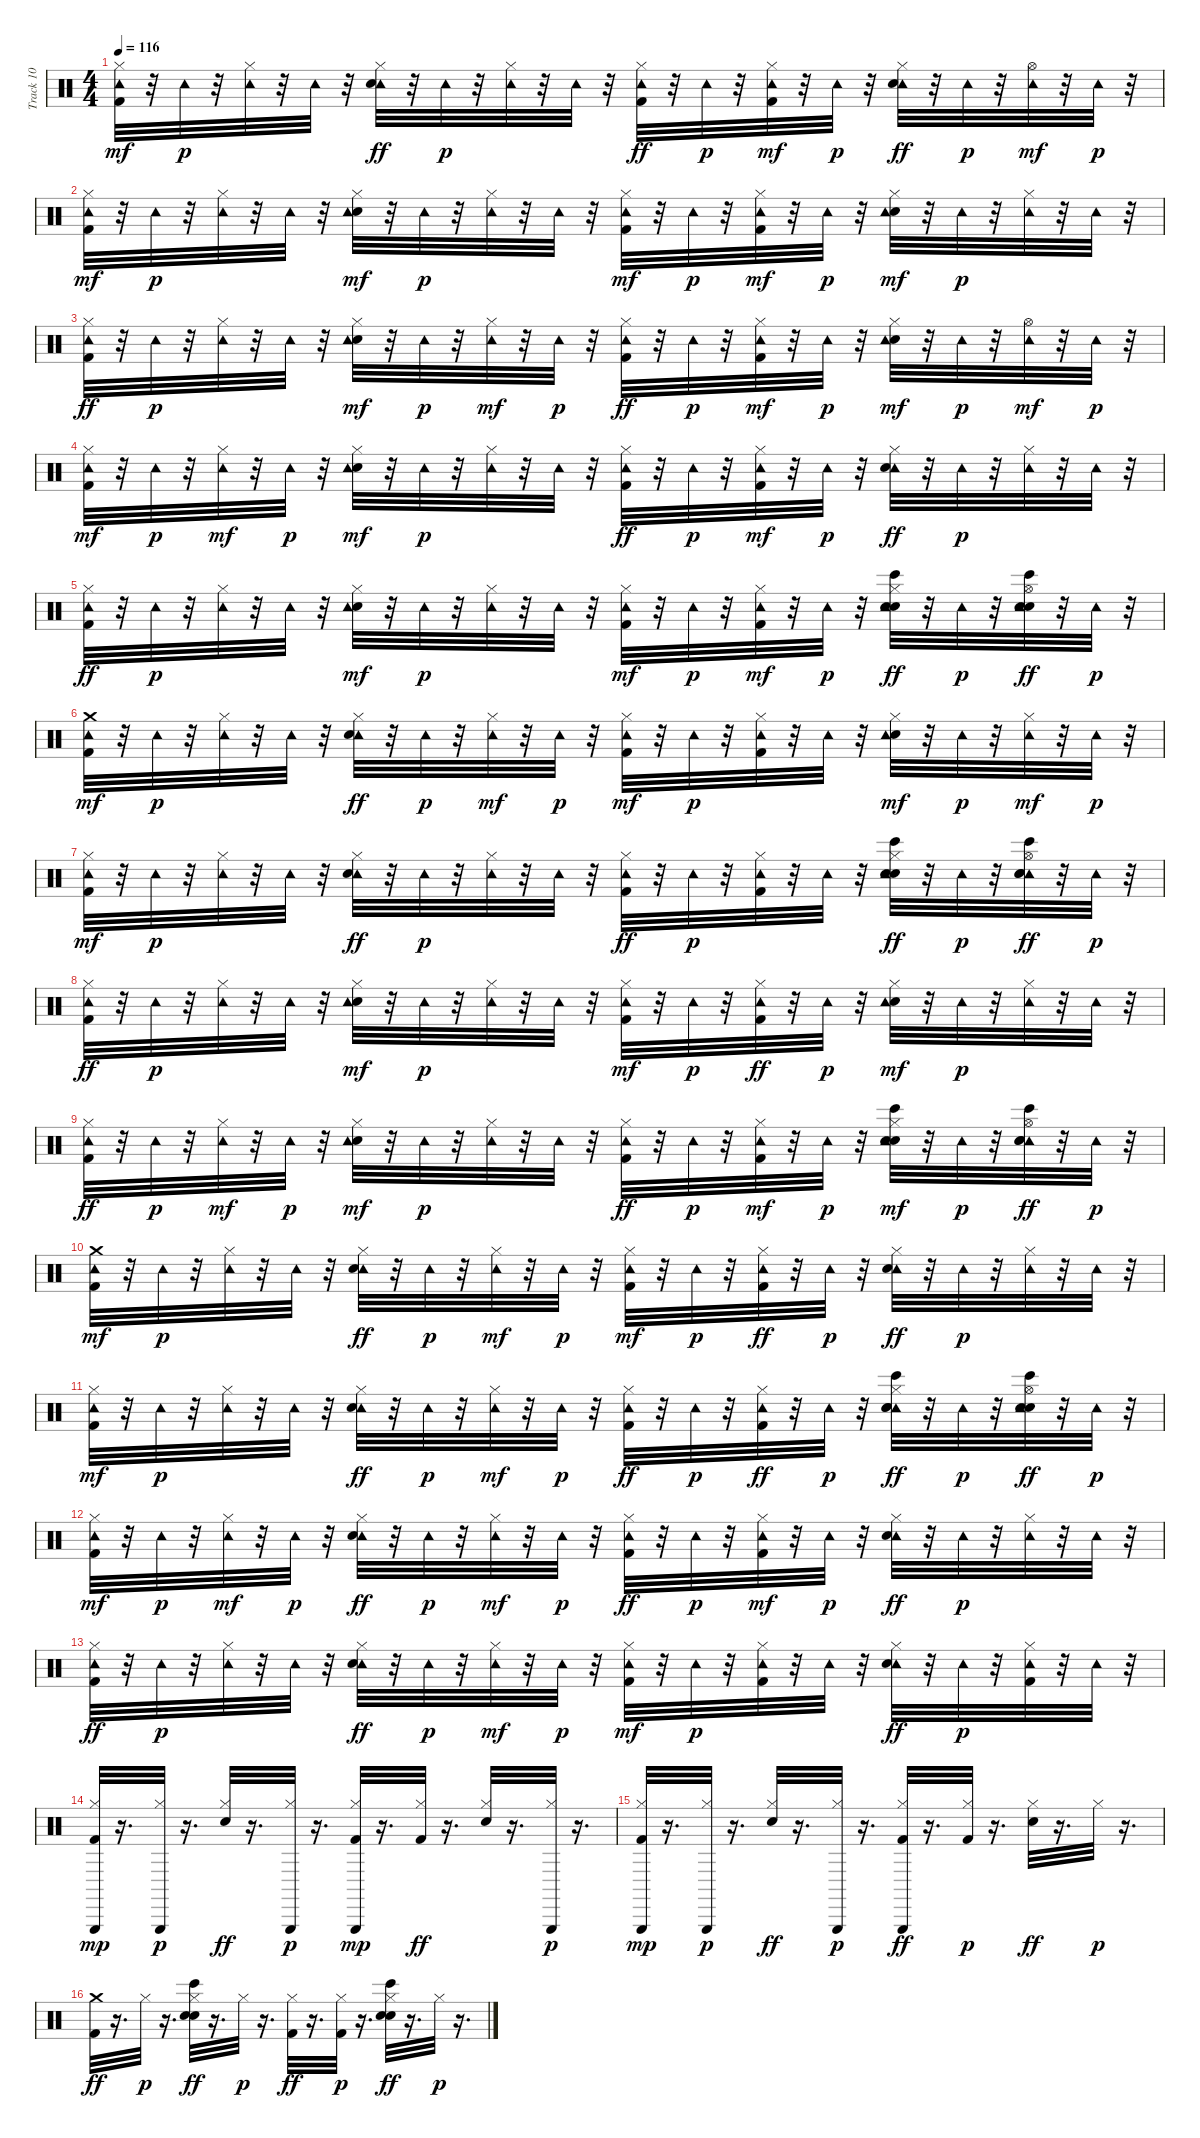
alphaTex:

\track ("Track 10" "Track 10") {instrument percussion}
\staff {score}
\articulation defaults
\ts (4 4)
\tempo 116
\clef neutral
\ks c
("Kick (hit) 2" "Tambourine (hit)" "Hi-Hat (closed)").32{dy mf} r.32 "Tambourine (hit)".32{dy p} r.32 ("Tambourine (hit)" "Hi-Hat (closed)").32 r.32 "Tambourine (hit)".32 r.32 ("Tambourine (hit)" "Snare (hit) 2" "Hi-Hat (closed)").32{dy ff} r.32 "Tambourine (hit)".32{dy p} r.32 ("Tambourine (hit)" "Hi-Hat (closed)").32 r.32 "Tambourine (hit)".32 r.32 ("Hi-Hat (closed)" "Tambourine (hit)" "Kick (hit) 2").32{dy ff} r.32 "Tambourine (hit)".32{dy p} r.32 ("Kick (hit) 2" "Hi-Hat (closed)" "Tambourine (hit)").32{dy mf} r.32 "Tambourine (hit)".32{dy p} r.32 ("Tambourine (hit)" "Snare (hit) 2" "Hi-Hat (closed)").32{dy ff} r.32 "Tambourine (hit)".32{dy p} r.32 ("Hi-Hat (open)" "Tambourine (hit)").32{dy mf} r.32 "Tambourine (hit)".32{dy p} r.32 |
("Hi-Hat (closed)" "Kick (hit) 2" "Tambourine (hit)").32{dy mf} r.32 "Tambourine (hit)".32{dy p} r.32 ("Tambourine (hit)" "Hi-Hat (closed)").32 r.32 "Tambourine (hit)".32 r.32 ("Hi-Hat (closed)" "Snare (hit) 2" "Tambourine (hit)").32{dy mf} r.32 "Tambourine (hit)".32{dy p} r.32 ("Tambourine (hit)" "Hi-Hat (closed)").32 r.32 "Tambourine (hit)".32 r.32 ("Kick (hit) 2" "Hi-Hat (closed)" "Tambourine (hit)").32{dy mf} r.32 "Tambourine (hit)".32{dy p} r.32 ("Hi-Hat (closed)" "Kick (hit) 2" "Tambourine (hit)").32{dy mf} r.32 "Tambourine (hit)".32{dy p} r.32 ("Snare (hit) 2" "Hi-Hat (closed)" "Tambourine (hit)").32{dy mf} r.32 "Tambourine (hit)".32{dy p} r.32 ("Tambourine (hit)" "Hi-Hat (closed)").32 r.32 "Tambourine (hit)".32 r.32 |
("Tambourine (hit)" "Hi-Hat (closed)" "Kick (hit) 2").32{dy ff} r.32 "Tambourine (hit)".32{dy p} r.32 ("Tambourine (hit)" "Hi-Hat (closed)").32 r.32 "Tambourine (hit)".32 r.32 ("Snare (hit) 2" "Hi-Hat (closed)" "Tambourine (hit)").32{dy mf} r.32 "Tambourine (hit)".32{dy p} r.32 ("Hi-Hat (closed)" "Tambourine (hit)").32{dy mf} r.32 "Tambourine (hit)".32{dy p} r.32 ("Hi-Hat (closed)" "Tambourine (hit)" "Kick (hit) 2").32{dy ff} r.32 "Tambourine (hit)".32{dy p} r.32 ("Kick (hit) 2" "Hi-Hat (closed)" "Tambourine (hit)").32{dy mf} r.32 "Tambourine (hit)".32{dy p} r.32 ("Snare (hit) 2" "Hi-Hat (closed)" "Tambourine (hit)").32{dy mf} r.32 "Tambourine (hit)".32{dy p} r.32 ("Hi-Hat (open)" "Tambourine (hit)").32{dy mf} r.32 "Tambourine (hit)".32{dy p} r.32 |
("Kick (hit) 2" "Hi-Hat (closed)" "Tambourine (hit)").32{dy mf} r.32 "Tambourine (hit)".32{dy p} r.32 ("Hi-Hat (closed)" "Tambourine (hit)").32{dy mf} r.32 "Tambourine (hit)".32{dy p} r.32 ("Hi-Hat (closed)" "Snare (hit) 2" "Tambourine (hit)").32{dy mf} r.32 "Tambourine (hit)".32{dy p} r.32 ("Tambourine (hit)" "Hi-Hat (closed)").32 r.32 "Tambourine (hit)".32 r.32 ("Tambourine (hit)" "Kick (hit) 2" "Hi-Hat (closed)").32{dy ff} r.32 "Tambourine (hit)".32{dy p} r.32 ("Kick (hit) 2" "Hi-Hat (closed)" "Tambourine (hit)").32{dy mf} r.32 "Tambourine (hit)".32{dy p} r.32 ("Tambourine (hit)" "Hi-Hat (closed)" "Snare (hit) 2").32{dy ff} r.32 "Tambourine (hit)".32{dy p} r.32 ("Tambourine (hit)" "Hi-Hat (closed)").32 r.32 "Tambourine (hit)".32 r.32 |
("Tambourine (hit)" "Kick (hit) 2" "Hi-Hat (closed)").32{dy ff} r.32 "Tambourine (hit)".32{dy p} r.32 ("Tambourine (hit)" "Hi-Hat (closed)").32 r.32 "Tambourine (hit)".32 r.32 ("Hi-Hat (closed)" "Snare (hit) 2" "Tambourine (hit)").32{dy mf} r.32 "Tambourine (hit)".32{dy p} r.32 ("Tambourine (hit)" "Hi-Hat (closed)").32 r.32 "Tambourine (hit)".32 r.32 ("Hi-Hat (closed)" "Kick (hit) 2" "Tambourine (hit)").32{dy mf} r.32 "Tambourine (hit)".32{dy p} r.32 ("Hi-Hat (closed)" "Kick (hit) 2" "Tambourine (hit)").32{dy mf} r.32 "Tambourine (hit)".32{dy p} r.32 ("Hi-Hat (closed)" "Snare (hit) 2" "Bongo High (hit)" "Tambourine (hit)" "Hand Clap (hit)").32{dy ff} r.32 "Tambourine (hit)".32{dy p} r.32 ("Hand Clap (hit)" "Snare (hit) 2" "Hi-Hat (open)" "Tambourine (hit)" "Bongo High (hit)").32{dy ff} r.32 "Tambourine (hit)".32{dy p} r.32 |
("Kick (hit) 2" "Crash medium (hit)" "Tambourine (hit)").32{dy mf} r.32 "Tambourine (hit)".32{dy p} r.32 ("Tambourine (hit)" "Hi-Hat (closed)").32 r.32 "Tambourine (hit)".32 r.32 ("Tambourine (hit)" "Hi-Hat (closed)" "Snare (hit) 2").32{dy ff} r.32 "Tambourine (hit)".32{dy p} r.32 ("Hi-Hat (closed)" "Tambourine (hit)").32{dy mf} r.32 "Tambourine (hit)".32{dy p} r.32 ("Kick (hit) 2" "Hi-Hat (closed)" "Tambourine (hit)").32{dy mf} r.32 "Tambourine (hit)".32{dy p} r.32 ("Kick (hit) 2" "Tambourine (hit)" "Hi-Hat (closed)").32 r.32 "Tambourine (hit)".32 r.32 ("Hi-Hat (closed)" "Snare (hit) 2" "Tambourine (hit)").32{dy mf} r.32 "Tambourine (hit)".32{dy p} r.32 ("Hi-Hat (closed)" "Tambourine (hit)").32{dy mf} r.32 "Tambourine (hit)".32{dy p} r.32 |
("Hi-Hat (closed)" "Kick (hit) 2" "Tambourine (hit)").32{dy mf} r.32 "Tambourine (hit)".32{dy p} r.32 ("Tambourine (hit)" "Hi-Hat (closed)").32 r.32 "Tambourine (hit)".32 r.32 ("Tambourine (hit)" "Snare (hit) 2" "Hi-Hat (closed)").32{dy ff} r.32 "Tambourine (hit)".32{dy p} r.32 ("Tambourine (hit)" "Hi-Hat (closed)").32 r.32 "Tambourine (hit)".32 r.32 ("Tambourine (hit)" "Kick (hit) 2" "Hi-Hat (closed)").32{dy ff} r.32 "Tambourine (hit)".32{dy p} r.32 ("Tambourine (hit)" "Kick (hit) 2" "Hi-Hat (closed)").32 r.32 "Tambourine (hit)".32 r.32 ("Hand Clap (hit)" "Hi-Hat (closed)" "Snare (hit) 2" "Tambourine (hit)" "Bongo High (hit)").32{dy ff} r.32 "Tambourine (hit)".32{dy p} r.32 ("Hi-Hat (open)" "Bongo High (hit)" "Tambourine (hit)" "Snare (hit) 2" "Hand Clap (hit)").32{dy ff} r.32 "Tambourine (hit)".32{dy p} r.32 |
("Tambourine (hit)" "Hi-Hat (closed)" "Kick (hit) 2").32{dy ff} r.32 "Tambourine (hit)".32{dy p} r.32 ("Tambourine (hit)" "Hi-Hat (closed)").32 r.32 "Tambourine (hit)".32 r.32 ("Snare (hit) 2" "Hi-Hat (closed)" "Tambourine (hit)").32{dy mf} r.32 "Tambourine (hit)".32{dy p} r.32 ("Tambourine (hit)" "Hi-Hat (closed)").32 r.32 "Tambourine (hit)".32 r.32 ("Hi-Hat (closed)" "Kick (hit) 2" "Tambourine (hit)").32{dy mf} r.32 "Tambourine (hit)".32{dy p} r.32 ("Hi-Hat (closed)" "Tambourine (hit)" "Kick (hit) 2").32{dy ff} r.32 "Tambourine (hit)".32{dy p} r.32 ("Hi-Hat (closed)" "Snare (hit) 2" "Tambourine (hit)").32{dy mf} r.32 "Tambourine (hit)".32{dy p} r.32 ("Tambourine (hit)" "Hi-Hat (closed)").32 r.32 "Tambourine (hit)".32 r.32 |
("Hi-Hat (closed)" "Tambourine (hit)" "Kick (hit) 2").32{dy ff} r.32 "Tambourine (hit)".32{dy p} r.32 ("Hi-Hat (closed)" "Tambourine (hit)").32{dy mf} r.32 "Tambourine (hit)".32{dy p} r.32 ("Snare (hit) 2" "Hi-Hat (closed)" "Tambourine (hit)").32{dy mf} r.32 "Tambourine (hit)".32{dy p} r.32 ("Tambourine (hit)" "Hi-Hat (closed)").32 r.32 "Tambourine (hit)".32 r.32 ("Tambourine (hit)" "Kick (hit) 2" "Hi-Hat (closed)").32{dy ff} r.32 "Tambourine (hit)".32{dy p} r.32 ("Hi-Hat (closed)" "Kick (hit) 2" "Tambourine (hit)").32{dy mf} r.32 "Tambourine (hit)".32{dy p} r.32 ("Bongo High (hit)" "Hand Clap (hit)" "Hi-Hat (closed)" "Snare (hit) 2" "Tambourine (hit)").32{dy mf} r.32 "Tambourine (hit)".32{dy p} r.32 ("Bongo High (hit)" "Tambourine (hit)" "Snare (hit) 2" "Hi-Hat (open)" "Hand Clap (hit)").32{dy ff} r.32 "Tambourine (hit)".32{dy p} r.32 |
("Kick (hit) 2" "Crash medium (hit)" "Tambourine (hit)").32{dy mf} r.32 "Tambourine (hit)".32{dy p} r.32 ("Tambourine (hit)" "Hi-Hat (closed)").32 r.32 "Tambourine (hit)".32 r.32 ("Hi-Hat (closed)" "Tambourine (hit)" "Snare (hit) 2").32{dy ff} r.32 "Tambourine (hit)".32{dy p} r.32 ("Hi-Hat (closed)" "Tambourine (hit)").32{dy mf} r.32 "Tambourine (hit)".32{dy p} r.32 ("Hi-Hat (closed)" "Kick (hit) 2" "Tambourine (hit)").32{dy mf} r.32 "Tambourine (hit)".32{dy p} r.32 ("Hi-Hat (closed)" "Tambourine (hit)" "Kick (hit) 2").32{dy ff} r.32 "Tambourine (hit)".32{dy p} r.32 ("Tambourine (hit)" "Snare (hit) 2" "Hi-Hat (closed)").32{dy ff} r.32 "Tambourine (hit)".32{dy p} r.32 ("Tambourine (hit)" "Hi-Hat (closed)").32 r.32 "Tambourine (hit)".32 r.32 |
("Kick (hit) 2" "Tambourine (hit)" "Hi-Hat (closed)").32{dy mf} r.32 "Tambourine (hit)".32{dy p} r.32 ("Tambourine (hit)" "Hi-Hat (closed)").32 r.32 "Tambourine (hit)".32 r.32 ("Tambourine (hit)" "Snare (hit) 2" "Hi-Hat (closed)").32{dy ff} r.32 "Tambourine (hit)".32{dy p} r.32 ("Hi-Hat (closed)" "Tambourine (hit)").32{dy mf} r.32 "Tambourine (hit)".32{dy p} r.32 ("Tambourine (hit)" "Kick (hit) 2" "Hi-Hat (closed)").32{dy ff} r.32 "Tambourine (hit)".32{dy p} r.32 ("Hi-Hat (closed)" "Tambourine (hit)" "Kick (hit) 2").32{dy ff} r.32 "Tambourine (hit)".32{dy p} r.32 ("Tambourine (hit)" "Hi-Hat (closed)" "Hand Clap (hit)" "Snare (hit) 2" "Bongo High (hit)").32{dy ff} r.32 "Tambourine (hit)".32{dy p} r.32 ("Hi-Hat (open)" "Hand Clap (hit)" "Snare (hit) 2" "Tambourine (hit)" "Bongo High (hit)").32{dy ff} r.32 "Tambourine (hit)".32{dy p} r.32 |
("Hi-Hat (closed)" "Kick (hit) 2" "Tambourine (hit)").32{dy mf} r.32 "Tambourine (hit)".32{dy p} r.32 ("Hi-Hat (closed)" "Tambourine (hit)").32{dy mf} r.32 "Tambourine (hit)".32{dy p} r.32 ("Hi-Hat (closed)" "Tambourine (hit)" "Snare (hit) 2").32{dy ff} r.32 "Tambourine (hit)".32{dy p} r.32 ("Hi-Hat (closed)" "Tambourine (hit)").32{dy mf} r.32 "Tambourine (hit)".32{dy p} r.32 ("Tambourine (hit)" "Kick (hit) 2" "Hi-Hat (closed)").32{dy ff} r.32 "Tambourine (hit)".32{dy p} r.32 ("Kick (hit) 2" "Hi-Hat (closed)" "Tambourine (hit)").32{dy mf} r.32 "Tambourine (hit)".32{dy p} r.32 ("Tambourine (hit)" "Snare (hit) 2" "Hi-Hat (closed)").32{dy ff} r.32 "Tambourine (hit)".32{dy p} r.32 ("Tambourine (hit)" "Hi-Hat (closed)").32 r.32 "Tambourine (hit)".32 r.32 |
("Tambourine (hit)" "Hi-Hat (closed)" "Kick (hit) 2").32{dy ff} r.32 "Tambourine (hit)".32{dy p} r.32 ("Tambourine (hit)" "Hi-Hat (closed)").32 r.32 "Tambourine (hit)".32 r.32 ("Tambourine (hit)" "Snare (hit) 2" "Hi-Hat (closed)").32{dy ff} r.32 "Tambourine (hit)".32{dy p} r.32 ("Hi-Hat (closed)" "Tambourine (hit)").32{dy mf} r.32 "Tambourine (hit)".32{dy p} r.32 ("Hi-Hat (closed)" "Kick (hit) 2" "Tambourine (hit)").32{dy mf} r.32 "Tambourine (hit)".32{dy p} r.32 ("Kick (hit) 2" "Tambourine (hit)" "Hi-Hat (closed)").32 r.32 "Tambourine (hit)".32 r.32 ("Tambourine (hit)" "Snare (hit) 2" "Hi-Hat (closed)").32{dy ff} r.32 "Tambourine (hit)".32{dy p} r.32 ("Tambourine (hit)" "Kick (hit) 2" "Hi-Hat (closed)").32 r.32 "Tambourine (hit)".32 r.32 |
("Kick (hit) 2" "Triangle (hit)" "Hi-Hat (closed)").32{dy mp} r.16{d} ("Triangle (hit)" "Hi-Hat (closed)").32{dy p} r.16{d} ("Hi-Hat (closed)" "Snare (hit) 2").32{dy ff} r.16{d} ("Hi-Hat (closed)" "Triangle (hit)").32{dy p} r.16{d} ("Hi-Hat (closed)" "Kick (hit) 2" "Triangle (hit)").32{dy mp} r.16{d} ("Hi-Hat (closed)" "Kick (hit) 2").32{dy ff} r.16{d} ("Hi-Hat (closed)" "Snare (hit) 2").32 r.16{d} ("Triangle (hit)" "Hi-Hat (closed)").32{dy p} r.16{d} |
("Kick (hit) 2" "Hi-Hat (closed)" "Triangle (hit)").32{dy mp} r.16{d} ("Triangle (hit)" "Hi-Hat (closed)").32{dy p} r.16{d} ("Snare (hit) 2" "Hi-Hat (closed)").32{dy ff} r.16{d} ("Triangle (hit)" "Hi-Hat (closed)").32{dy p} r.16{d} ("Triangle (hit)" "Kick (hit) 2" "Hi-Hat (closed)").32{dy ff} r.16{d} ("Kick (hit) 2" "Hi-Hat (closed)").32{dy p} r.16{d} ("Hi-Hat (closed)" "Snare (hit) 2").32{dy ff} r.16{d} "Hi-Hat (closed)".32{dy p} r.16{d} |
("Crash medium (hit)" "Kick (hit) 2").32{dy ff} r.16{d} "Hi-Hat (closed)".32{dy p} r.16{d} ("Bongo High (hit)" "Snare (hit) 2" "Hi-Hat (closed)" "Hand Clap (hit)").32{dy ff} r.16{d} "Hi-Hat (closed)".32{dy p} r.16{d} ("Hi-Hat (closed)" "Kick (hit) 2").32{dy ff} r.16{d} ("Kick (hit) 2" "Hi-Hat (closed)").32{dy p} r.16{d} ("Hi-Hat (closed)" "Snare (hit) 2" "Bongo High (hit)" "Hand Clap (hit)").32{dy ff} r.16{d} "Hi-Hat (closed)".32{dy p} r.16{d}
